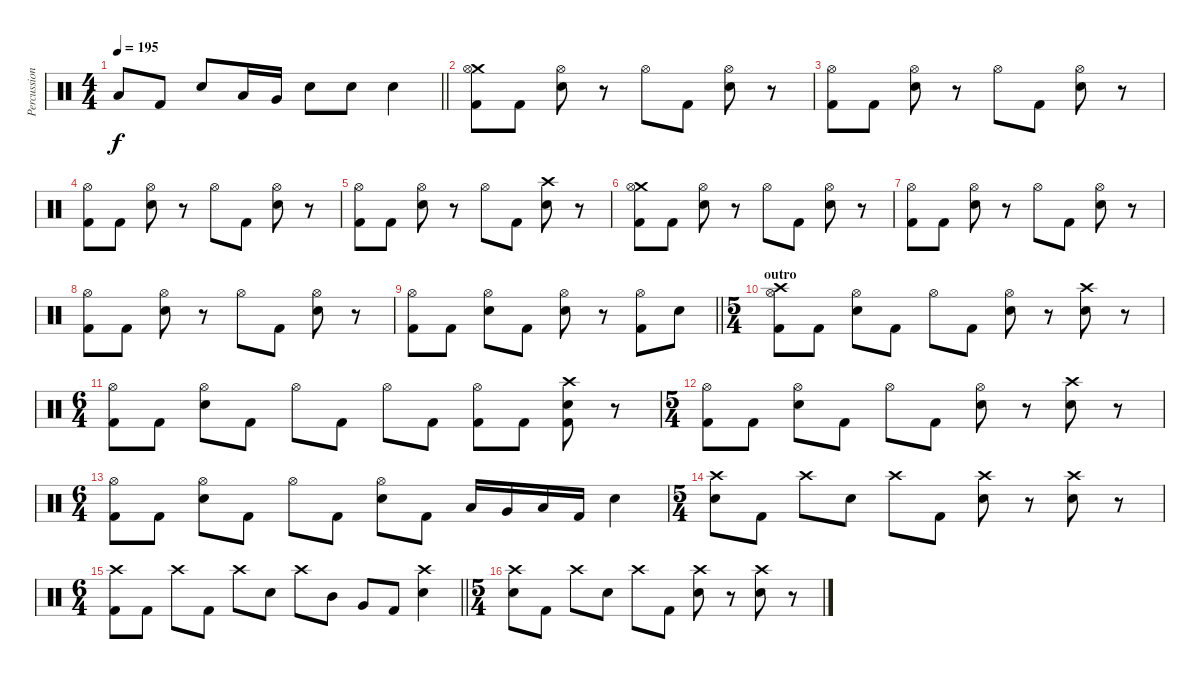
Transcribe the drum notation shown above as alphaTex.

\track ("Percussion" "Percussion") {instrument percussion}
\staff {score}
\articulation defaults
\ts (4 4)
\tempo 195
\clef neutral
\barLineRight lightlight
\ks c "Low Floor Tom (hit)".8{dy f} "Kick (hit) 2".8 "Snare (hit) 2".8 "Low Tom (hit)".16 "Very Low Tom (hit)".16 "Snare (hit) 2".8 "Snare (hit) 2".8 "Snare (hit) 2".4
|
("Crash medium (hit)" "Hi-Hat (open)" "Kick (hit) 2").8 "Kick (hit) 2".8 ("Hi-Hat (open)" "Snare (hit) 2").8 r.8 "Hi-Hat (open)".8 "Kick (hit) 2".8 ("Hi-Hat (open)" "Snare (hit) 2").8 r.8 |
("Hi-Hat (open)" "Kick (hit) 2").8 "Kick (hit) 2".8 ("Hi-Hat (open)" "Snare (hit) 2").8 r.8 "Hi-Hat (open)".8 "Kick (hit) 2".8 ("Hi-Hat (open)" "Snare (hit) 2").8 r.8 |
("Hi-Hat (open)" "Kick (hit) 2").8 "Kick (hit) 2".8 ("Hi-Hat (open)" "Snare (hit) 2").8 r.8 "Hi-Hat (open)".8 "Kick (hit) 2".8 ("Hi-Hat (open)" "Snare (hit) 2").8 r.8 |
("Hi-Hat (open)" "Kick (hit) 2").8 "Kick (hit) 2".8 ("Hi-Hat (open)" "Snare (hit) 2").8 r.8 "Hi-Hat (open)".8 "Kick (hit) 2".8 ("Crash high (hit)" "Snare (hit) 2").8 r.8 |
("Crash medium (hit)" "Hi-Hat (open)" "Kick (hit) 2").8 "Kick (hit) 2".8 ("Hi-Hat (open)" "Snare (hit) 2").8 r.8 "Hi-Hat (open)".8 "Kick (hit) 2".8 ("Hi-Hat (open)" "Snare (hit) 2").8 r.8 |
("Hi-Hat (open)" "Kick (hit) 2").8 "Kick (hit) 2".8 ("Hi-Hat (open)" "Snare (hit) 2").8 r.8 "Hi-Hat (open)".8 "Kick (hit) 2".8 ("Hi-Hat (open)" "Snare (hit) 2").8 r.8 |
("Hi-Hat (open)" "Kick (hit) 2").8 "Kick (hit) 2".8 ("Hi-Hat (open)" "Snare (hit) 2").8 r.8 "Hi-Hat (open)".8 "Kick (hit) 2".8 ("Hi-Hat (open)" "Snare (hit) 2").8 r.8 |
\barLineRight lightlight
("Hi-Hat (open)" "Kick (hit) 2").8 "Kick (hit) 2".8 ("Hi-Hat (open)" "Snare (hit) 2").8 "Kick (hit) 2".8 ("Hi-Hat (open)" "Snare (hit) 2").8 r.8 ("Hi-Hat (open)" "Kick (hit) 2").8 "Snare (hit) 2".8 |
\ts (5 4)
\section ("" "outro")
("Crash high (hit)" "Hi-Hat (open)" "Kick (hit) 2").8 "Kick (hit) 2".8 ("Hi-Hat (open)" "Snare (hit) 2").8 "Kick (hit) 2".8 "Hi-Hat (open)".8 "Kick (hit) 2".8 ("Hi-Hat (open)" "Snare (hit) 2").8 r.8 ("Crash high (hit)" "Snare (hit) 2").8 r.8 |
\ts (6 4)
("Hi-Hat (open)" "Kick (hit) 2").8 "Kick (hit) 2".8 ("Hi-Hat (open)" "Snare (hit) 2").8 "Kick (hit) 2".8 "Hi-Hat (open)".8 "Kick (hit) 2".8 "Hi-Hat (open)".8 "Kick (hit) 2".8 ("Hi-Hat (open)" "Kick (hit) 2").8 "Kick (hit) 2".8 ("Crash high (hit)" "Snare (hit) 2" "Kick (hit) 2").8 r.8 |
\ts (5 4)
("Hi-Hat (open)" "Kick (hit) 2").8 "Kick (hit) 2".8 ("Hi-Hat (open)" "Snare (hit) 2").8 "Kick (hit) 2".8 "Hi-Hat (open)".8 "Kick (hit) 2".8 ("Hi-Hat (open)" "Snare (hit) 2").8 r.8 ("Crash high (hit)" "Snare (hit) 2").8 r.8 |
\ts (6 4)
("Hi-Hat (open)" "Kick (hit) 2").8 "Kick (hit) 2".8 ("Hi-Hat (open)" "Snare (hit) 2").8 "Kick (hit) 2".8 "Hi-Hat (open)".8 "Kick (hit) 2".8 ("Hi-Hat (open)" "Snare (hit) 2").8 "Kick (hit) 2".8 "Low Tom (hit)".16 "Very Low Tom (hit)".16 "Low Floor Tom (hit)".16 "Kick (hit) 2".16 "Snare (hit) 2".4 |
\ts (5 4)
("Crash high (hit)" "Snare (hit) 2").8 "Kick (hit) 2".8 "Crash high (hit)".8 "Snare (hit) 2".8 "Crash high (hit)".8 "Kick (hit) 2".8 ("Crash high (hit)" "Snare (hit) 2").8 r.8 ("Crash high (hit)" "Snare (hit) 2").8 r.8 |
\ts (6 4)
\barLineRight lightlight
("Crash high (hit)" "Kick (hit) 2").8 "Kick (hit) 2".8 "Crash high (hit)".8 "Kick (hit) 2".8 "Crash high (hit)".8 "Snare (hit) 2".8 "Crash high (hit)".8 "Mid Tom (hit)".8 "Very Low Tom (hit)".8 "Kick (hit) 2".8 ("Crash high (hit)" "Snare (hit) 2").4 |
\ts (5 4)
("Crash high (hit)" "Snare (hit) 2").8 "Kick (hit) 2".8 "Crash high (hit)".8 "Snare (hit) 2".8 "Crash high (hit)".8 "Kick (hit) 2".8 ("Crash high (hit)" "Snare (hit) 2").8 r.8 ("Crash high (hit)" "Snare (hit) 2").8 r.8
